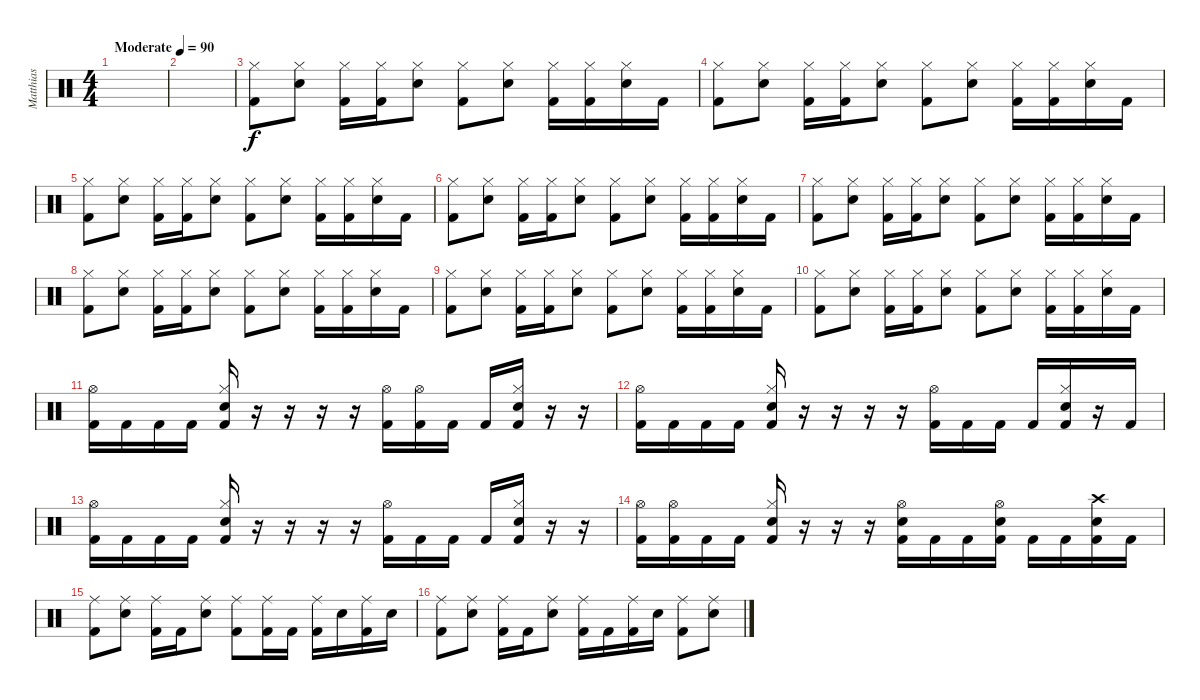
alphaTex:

\track ("Matthias" "Matthias") {instrument percussion}
\staff {score}
\articulation defaults
\ts (4 4)
\tempo (90 "Moderate")
\clef neutral
\ks c
|
|
("Kick (hit) 2" "Hi-Hat (closed)").8 ("Snare (hit) 2" "Hi-Hat (closed)").8 ("Kick (hit) 2" "Hi-Hat (closed)").16 ("Kick (hit) 2" "Hi-Hat (closed)").16 ("Snare (hit) 2" "Hi-Hat (closed)").8 ("Kick (hit) 2" "Hi-Hat (closed)").8 ("Snare (hit) 2" "Hi-Hat (closed)").8 ("Kick (hit) 2" "Hi-Hat (closed)").16 ("Kick (hit) 2" "Hi-Hat (closed)").16 ("Snare (hit) 2" "Hi-Hat (closed)").16 "Kick (hit) 2".16 |
("Kick (hit) 2" "Hi-Hat (closed)").8 ("Snare (hit) 2" "Hi-Hat (closed)").8 ("Kick (hit) 2" "Hi-Hat (closed)").16 ("Kick (hit) 2" "Hi-Hat (closed)").16 ("Snare (hit) 2" "Hi-Hat (closed)").8 ("Kick (hit) 2" "Hi-Hat (closed)").8 ("Snare (hit) 2" "Hi-Hat (closed)").8 ("Kick (hit) 2" "Hi-Hat (closed)").16 ("Kick (hit) 2" "Hi-Hat (closed)").16 ("Snare (hit) 2" "Hi-Hat (closed)").16 "Kick (hit) 2".16 |
("Kick (hit) 2" "Hi-Hat (closed)").8 ("Snare (hit) 2" "Hi-Hat (closed)").8 ("Kick (hit) 2" "Hi-Hat (closed)").16 ("Kick (hit) 2" "Hi-Hat (closed)").16 ("Snare (hit) 2" "Hi-Hat (closed)").8 ("Kick (hit) 2" "Hi-Hat (closed)").8 ("Snare (hit) 2" "Hi-Hat (closed)").8 ("Kick (hit) 2" "Hi-Hat (closed)").16 ("Kick (hit) 2" "Hi-Hat (closed)").16 ("Snare (hit) 2" "Hi-Hat (closed)").16 "Kick (hit) 2".16 |
("Kick (hit) 2" "Hi-Hat (closed)").8 ("Snare (hit) 2" "Hi-Hat (closed)").8 ("Kick (hit) 2" "Hi-Hat (closed)").16 ("Kick (hit) 2" "Hi-Hat (closed)").16 ("Snare (hit) 2" "Hi-Hat (closed)").8 ("Kick (hit) 2" "Hi-Hat (closed)").8 ("Snare (hit) 2" "Hi-Hat (closed)").8 ("Kick (hit) 2" "Hi-Hat (closed)").16 ("Kick (hit) 2" "Hi-Hat (closed)").16 ("Snare (hit) 2" "Hi-Hat (closed)").16 "Kick (hit) 2".16 |
("Kick (hit) 2" "Hi-Hat (closed)").8 ("Snare (hit) 2" "Hi-Hat (closed)").8 ("Kick (hit) 2" "Hi-Hat (closed)").16 ("Kick (hit) 2" "Hi-Hat (closed)").16 ("Snare (hit) 2" "Hi-Hat (closed)").8 ("Kick (hit) 2" "Hi-Hat (closed)").8 ("Snare (hit) 2" "Hi-Hat (closed)").8 ("Kick (hit) 2" "Hi-Hat (closed)").16 ("Kick (hit) 2" "Hi-Hat (closed)").16 ("Snare (hit) 2" "Hi-Hat (closed)").16 "Kick (hit) 2".16 |
("Kick (hit) 2" "Hi-Hat (closed)").8 ("Snare (hit) 2" "Hi-Hat (closed)").8 ("Kick (hit) 2" "Hi-Hat (closed)").16 ("Kick (hit) 2" "Hi-Hat (closed)").16 ("Snare (hit) 2" "Hi-Hat (closed)").8 ("Kick (hit) 2" "Hi-Hat (closed)").8 ("Snare (hit) 2" "Hi-Hat (closed)").8 ("Kick (hit) 2" "Hi-Hat (closed)").16 ("Kick (hit) 2" "Hi-Hat (closed)").16 ("Snare (hit) 2" "Hi-Hat (closed)").16 "Kick (hit) 2".16 |
("Kick (hit) 2" "Hi-Hat (closed)").8 ("Snare (hit) 2" "Hi-Hat (closed)").8 ("Kick (hit) 2" "Hi-Hat (closed)").16 ("Kick (hit) 2" "Hi-Hat (closed)").16 ("Snare (hit) 2" "Hi-Hat (closed)").8 ("Kick (hit) 2" "Hi-Hat (closed)").8 ("Snare (hit) 2" "Hi-Hat (closed)").8 ("Kick (hit) 2" "Hi-Hat (closed)").16 ("Kick (hit) 2" "Hi-Hat (closed)").16 ("Snare (hit) 2" "Hi-Hat (closed)").16 "Kick (hit) 2".16 |
("Kick (hit) 2" "Hi-Hat (closed)").8 ("Snare (hit) 2" "Hi-Hat (closed)").8 ("Kick (hit) 2" "Hi-Hat (closed)").16 ("Kick (hit) 2" "Hi-Hat (closed)").16 ("Snare (hit) 2" "Hi-Hat (closed)").8 ("Kick (hit) 2" "Hi-Hat (closed)").8 ("Snare (hit) 2" "Hi-Hat (closed)").8 ("Kick (hit) 2" "Hi-Hat (closed)").16 ("Kick (hit) 2" "Hi-Hat (closed)").16 ("Snare (hit) 2" "Hi-Hat (closed)").16 "Kick (hit) 2".16 |
("Kick (hit) 2" "Hi-Hat (open)").16 "Kick (hit) 2".16 "Kick (hit) 2".16 "Kick (hit) 2".16 ("Kick (hit) 2" "Snare (hit) 2" "Hi-Hat (closed)").16 r.16 r.16 r.16 r.16 ("Kick (hit) 2" "Hi-Hat (open)").16 ("Kick (hit) 2" "Hi-Hat (open)").16 "Kick (hit) 2".16 "Kick (hit) 2".16 ("Kick (hit) 2" "Snare (hit) 2" "Hi-Hat (closed)").16 r.16 r.16 |
("Kick (hit) 2" "Hi-Hat (open)").16 "Kick (hit) 2".16 "Kick (hit) 2".16 "Kick (hit) 2".16 ("Kick (hit) 2" "Snare (hit) 2" "Hi-Hat (closed)").16 r.16 r.16 r.16 r.16 ("Kick (hit) 2" "Hi-Hat (open)").16 "Kick (hit) 2".16 "Kick (hit) 2".16 "Kick (hit) 2".16 ("Kick (hit) 2" "Snare (hit) 2" "Hi-Hat (closed)").16 r.16 "Kick (hit) 2".16 |
("Kick (hit) 2" "Hi-Hat (open)").16 "Kick (hit) 2".16 "Kick (hit) 2".16 "Kick (hit) 2".16 ("Kick (hit) 2" "Snare (hit) 2" "Hi-Hat (closed)").16 r.16 r.16 r.16 r.16 ("Kick (hit) 2" "Hi-Hat (open)").16 "Kick (hit) 2".16 "Kick (hit) 2".16 "Kick (hit) 2".16 ("Kick (hit) 2" "Snare (hit) 2" "Hi-Hat (closed)").16 r.16 r.16 |
("Kick (hit) 2" "Hi-Hat (open)").16 ("Kick (hit) 2" "Hi-Hat (open)").16 "Kick (hit) 2".16 "Kick (hit) 2".16 ("Kick (hit) 2" "Snare (hit) 2" "Hi-Hat (closed)").16 r.16 r.16 r.16 ("Kick (hit) 2" "Snare (hit) 2" "Hi-Hat (open)").16 "Kick (hit) 2".16 "Kick (hit) 2".16 ("Kick (hit) 2" "Snare (hit) 2" "Hi-Hat (open)").16 "Kick (hit) 2".16 "Kick (hit) 2".16 ("Kick (hit) 2" "Snare (hit) 2" "Crash high (hit)").16 "Kick (hit) 2".16 |
("Kick (hit) 2" "Ride (middle)").8 ("Snare (hit) 2" "Ride (middle)").8 ("Kick (hit) 2" "Ride (middle)").16 "Kick (hit) 2".16 ("Snare (hit) 2" "Ride (middle)").8 ("Kick (hit) 2" "Ride (middle)").8 ("Kick (hit) 2" "Ride (middle)").16 "Kick (hit) 2".16 ("Kick (hit) 2" "Ride (middle)").16 "Snare (hit) 2".16 ("Kick (hit) 2" "Ride (middle)").16 "Snare (hit) 2".16 |
("Kick (hit) 2" "Ride (middle)").8 ("Snare (hit) 2" "Ride (middle)").8 ("Kick (hit) 2" "Ride (middle)").16 "Kick (hit) 2".16 ("Snare (hit) 2" "Ride (middle)").8 ("Kick (hit) 2" "Ride (middle)").16 "Kick (hit) 2".16 ("Kick (hit) 2" "Ride (middle)").16 "Snare (hit) 2".16 ("Kick (hit) 2" "Ride (middle)").8 ("Snare (hit) 2" "Ride (middle)").8
